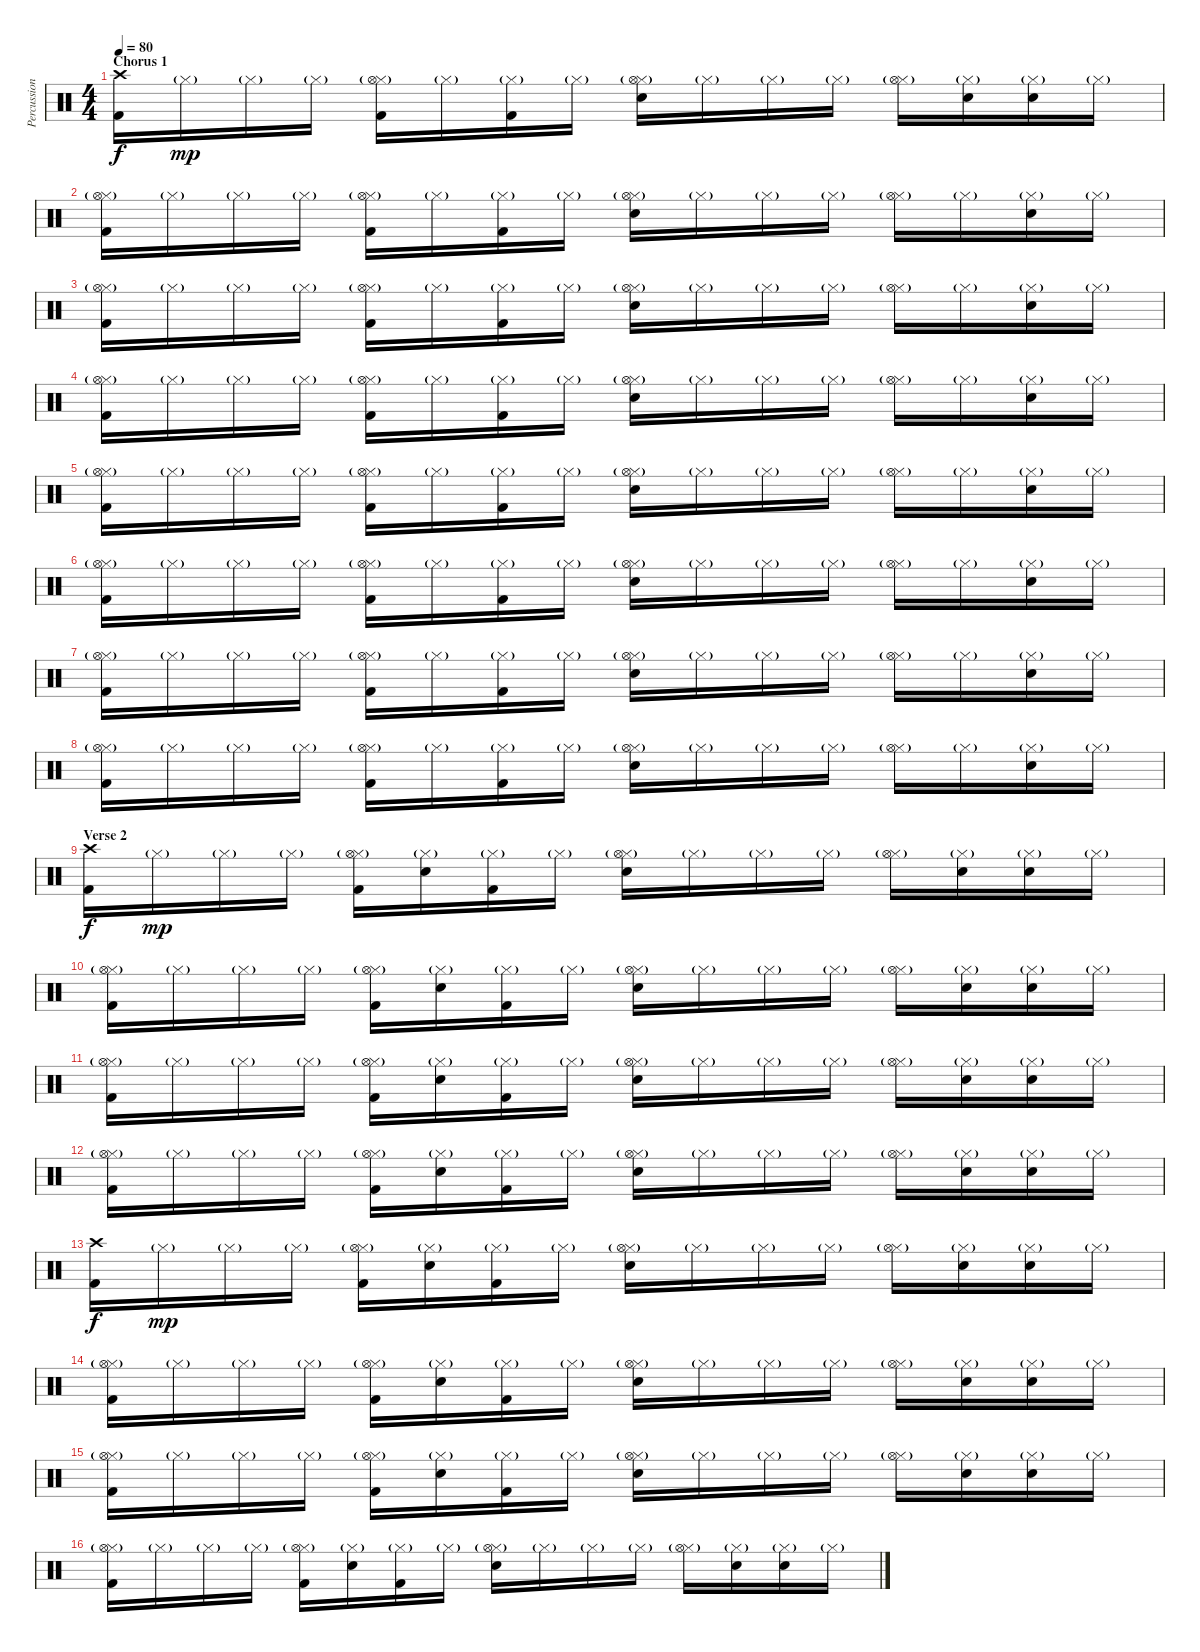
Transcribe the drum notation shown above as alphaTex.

\track ("Percussions" "Percussion") {instrument percussion}
\staff {score}
\articulation defaults
\ts (4 4)
\section ("" "Chorus 1")
\tempo 80
\clef neutral
\ks c
("Crash high (hit)" "Kick (hit) 2").16{dy f} "Hi-Hat (closed)"{g}.16{dy mp} "Hi-Hat (closed)"{g}.16 "Hi-Hat (closed)"{g}.16 ("Hi-Hat (closed)"{g} "Hi-Hat (open)" "Kick (hit) 2").16 "Hi-Hat (closed)"{g}.16 ("Hi-Hat (closed)"{g} "Kick (hit) 2").16 "Hi-Hat (closed)"{g}.16 ("Hi-Hat (closed)"{g} "Hi-Hat (open)" "Snare (hit) 2").16 "Hi-Hat (closed)"{g}.16 "Hi-Hat (closed)"{g}.16 "Hi-Hat (closed)"{g}.16 ("Hi-Hat (closed)"{g} "Hi-Hat (open)").16 ("Hi-Hat (closed)"{g} "Hand Clap (hit)").16 ("Hi-Hat (closed)"{g} "Snare (hit) 2").16 "Hi-Hat (closed)"{g}.16 |
("Hi-Hat (closed)"{g} "Hi-Hat (open)" "Kick (hit) 2").16 "Hi-Hat (closed)"{g}.16 "Hi-Hat (closed)"{g}.16 "Hi-Hat (closed)"{g}.16 ("Hi-Hat (closed)"{g} "Hi-Hat (open)" "Kick (hit) 2").16 "Hi-Hat (closed)"{g}.16 ("Hi-Hat (closed)"{g} "Kick (hit) 2").16 "Hi-Hat (closed)"{g}.16 ("Hi-Hat (closed)"{g} "Hi-Hat (open)" "Snare (hit) 2").16 "Hi-Hat (closed)"{g}.16 "Hi-Hat (closed)"{g}.16 "Hi-Hat (closed)"{g}.16 ("Hi-Hat (closed)"{g} "Hi-Hat (open)").16 "Hi-Hat (closed)"{g}.16 ("Hi-Hat (closed)"{g} "Snare (hit) 2").16 "Hi-Hat (closed)"{g}.16 |
("Hi-Hat (closed)"{g} "Hi-Hat (open)" "Kick (hit) 2").16 "Hi-Hat (closed)"{g}.16 "Hi-Hat (closed)"{g}.16 "Hi-Hat (closed)"{g}.16 ("Hi-Hat (closed)"{g} "Hi-Hat (open)" "Kick (hit) 2").16 "Hi-Hat (closed)"{g}.16 ("Hi-Hat (closed)"{g} "Kick (hit) 2").16 "Hi-Hat (closed)"{g}.16 ("Hi-Hat (closed)"{g} "Hi-Hat (open)" "Snare (hit) 2").16 "Hi-Hat (closed)"{g}.16 "Hi-Hat (closed)"{g}.16 "Hi-Hat (closed)"{g}.16 ("Hi-Hat (closed)"{g} "Hi-Hat (open)").16 "Hi-Hat (closed)"{g}.16 ("Hi-Hat (closed)"{g} "Snare (hit) 2").16 "Hi-Hat (closed)"{g}.16 |
("Hi-Hat (closed)"{g} "Hi-Hat (open)" "Kick (hit) 2").16 "Hi-Hat (closed)"{g}.16 "Hi-Hat (closed)"{g}.16 "Hi-Hat (closed)"{g}.16 ("Hi-Hat (closed)"{g} "Hi-Hat (open)" "Kick (hit) 2").16 "Hi-Hat (closed)"{g}.16 ("Hi-Hat (closed)"{g} "Kick (hit) 2").16 "Hi-Hat (closed)"{g}.16 ("Hi-Hat (closed)"{g} "Hi-Hat (open)" "Snare (hit) 2").16 "Hi-Hat (closed)"{g}.16 "Hi-Hat (closed)"{g}.16 "Hi-Hat (closed)"{g}.16 ("Hi-Hat (closed)"{g} "Hi-Hat (open)").16 "Hi-Hat (closed)"{g}.16 ("Hi-Hat (closed)"{g} "Snare (hit) 2").16 "Hi-Hat (closed)"{g}.16 |
("Hi-Hat (closed)"{g} "Hi-Hat (open)" "Kick (hit) 2").16 "Hi-Hat (closed)"{g}.16 "Hi-Hat (closed)"{g}.16 "Hi-Hat (closed)"{g}.16 ("Hi-Hat (closed)"{g} "Hi-Hat (open)" "Kick (hit) 2").16 "Hi-Hat (closed)"{g}.16 ("Hi-Hat (closed)"{g} "Kick (hit) 2").16 "Hi-Hat (closed)"{g}.16 ("Hi-Hat (closed)"{g} "Hi-Hat (open)" "Snare (hit) 2").16 "Hi-Hat (closed)"{g}.16 "Hi-Hat (closed)"{g}.16 "Hi-Hat (closed)"{g}.16 ("Hi-Hat (closed)"{g} "Hi-Hat (open)").16 "Hi-Hat (closed)"{g}.16 ("Hi-Hat (closed)"{g} "Snare (hit) 2").16 "Hi-Hat (closed)"{g}.16 |
("Hi-Hat (closed)"{g} "Hi-Hat (open)" "Kick (hit) 2").16 "Hi-Hat (closed)"{g}.16 "Hi-Hat (closed)"{g}.16 "Hi-Hat (closed)"{g}.16 ("Hi-Hat (closed)"{g} "Hi-Hat (open)" "Kick (hit) 2").16 "Hi-Hat (closed)"{g}.16 ("Hi-Hat (closed)"{g} "Kick (hit) 2").16 "Hi-Hat (closed)"{g}.16 ("Hi-Hat (closed)"{g} "Hi-Hat (open)" "Snare (hit) 2").16 "Hi-Hat (closed)"{g}.16 "Hi-Hat (closed)"{g}.16 "Hi-Hat (closed)"{g}.16 ("Hi-Hat (closed)"{g} "Hi-Hat (open)").16 "Hi-Hat (closed)"{g}.16 ("Hi-Hat (closed)"{g} "Snare (hit) 2").16 "Hi-Hat (closed)"{g}.16 |
("Hi-Hat (closed)"{g} "Hi-Hat (open)" "Kick (hit) 2").16 "Hi-Hat (closed)"{g}.16 "Hi-Hat (closed)"{g}.16 "Hi-Hat (closed)"{g}.16 ("Hi-Hat (closed)"{g} "Hi-Hat (open)" "Kick (hit) 2").16 "Hi-Hat (closed)"{g}.16 ("Hi-Hat (closed)"{g} "Kick (hit) 2").16 "Hi-Hat (closed)"{g}.16 ("Hi-Hat (closed)"{g} "Hi-Hat (open)" "Snare (hit) 2").16 "Hi-Hat (closed)"{g}.16 "Hi-Hat (closed)"{g}.16 "Hi-Hat (closed)"{g}.16 ("Hi-Hat (closed)"{g} "Hi-Hat (open)").16 "Hi-Hat (closed)"{g}.16 ("Hi-Hat (closed)"{g} "Snare (hit) 2").16 "Hi-Hat (closed)"{g}.16 |
("Hi-Hat (closed)"{g} "Hi-Hat (open)" "Kick (hit) 2").16 "Hi-Hat (closed)"{g}.16 "Hi-Hat (closed)"{g}.16 "Hi-Hat (closed)"{g}.16 ("Hi-Hat (closed)"{g} "Hi-Hat (open)" "Kick (hit) 2").16 "Hi-Hat (closed)"{g}.16 ("Hi-Hat (closed)"{g} "Kick (hit) 2").16 "Hi-Hat (closed)"{g}.16 ("Hi-Hat (closed)"{g} "Hi-Hat (open)" "Snare (hit) 2").16 "Hi-Hat (closed)"{g}.16 "Hi-Hat (closed)"{g}.16 "Hi-Hat (closed)"{g}.16 ("Hi-Hat (closed)"{g} "Hi-Hat (open)").16 "Hi-Hat (closed)"{g}.16 ("Hi-Hat (closed)"{g} "Snare (hit) 2").16 "Hi-Hat (closed)"{g}.16 |
\section ("" "Verse 2")
("Crash high (hit)" "Kick (hit) 2").16{dy f} "Hi-Hat (closed)"{g}.16{dy mp} "Hi-Hat (closed)"{g}.16 "Hi-Hat (closed)"{g}.16 ("Hi-Hat (closed)"{g} "Hi-Hat (open)" "Kick (hit) 2").16 ("Hi-Hat (closed)"{g} "Hand Clap (hit)").16 ("Hi-Hat (closed)"{g} "Kick (hit) 2").16 "Hi-Hat (closed)"{g}.16 ("Hi-Hat (closed)"{g} "Hi-Hat (open)" "Snare (hit) 2").16 "Hi-Hat (closed)"{g}.16 "Hi-Hat (closed)"{g}.16 "Hi-Hat (closed)"{g}.16 ("Hi-Hat (closed)"{g} "Hi-Hat (open)").16 ("Hi-Hat (closed)"{g} "Hand Clap (hit)").16 ("Hi-Hat (closed)"{g} "Snare (hit) 2").16 "Hi-Hat (closed)"{g}.16 |
("Hi-Hat (closed)"{g} "Hi-Hat (open)" "Kick (hit) 2").16 "Hi-Hat (closed)"{g}.16 "Hi-Hat (closed)"{g}.16 "Hi-Hat (closed)"{g}.16 ("Hi-Hat (closed)"{g} "Hi-Hat (open)" "Kick (hit) 2").16 ("Hi-Hat (closed)"{g} "Hand Clap (hit)").16 ("Hi-Hat (closed)"{g} "Kick (hit) 2").16 "Hi-Hat (closed)"{g}.16 ("Hi-Hat (closed)"{g} "Hi-Hat (open)" "Snare (hit) 2").16 "Hi-Hat (closed)"{g}.16 "Hi-Hat (closed)"{g}.16 "Hi-Hat (closed)"{g}.16 ("Hi-Hat (closed)"{g} "Hi-Hat (open)").16 ("Hi-Hat (closed)"{g} "Hand Clap (hit)").16 ("Hi-Hat (closed)"{g} "Snare (hit) 2").16 "Hi-Hat (closed)"{g}.16 |
("Hi-Hat (closed)"{g} "Hi-Hat (open)" "Kick (hit) 2").16 "Hi-Hat (closed)"{g}.16 "Hi-Hat (closed)"{g}.16 "Hi-Hat (closed)"{g}.16 ("Hi-Hat (closed)"{g} "Hi-Hat (open)" "Kick (hit) 2").16 ("Hi-Hat (closed)"{g} "Hand Clap (hit)").16 ("Hi-Hat (closed)"{g} "Kick (hit) 2").16 "Hi-Hat (closed)"{g}.16 ("Hi-Hat (closed)"{g} "Hi-Hat (open)" "Snare (hit) 2").16 "Hi-Hat (closed)"{g}.16 "Hi-Hat (closed)"{g}.16 "Hi-Hat (closed)"{g}.16 ("Hi-Hat (closed)"{g} "Hi-Hat (open)").16 ("Hi-Hat (closed)"{g} "Hand Clap (hit)").16 ("Hi-Hat (closed)"{g} "Snare (hit) 2").16 "Hi-Hat (closed)"{g}.16 |
("Hi-Hat (closed)"{g} "Hi-Hat (open)" "Kick (hit) 2").16 "Hi-Hat (closed)"{g}.16 "Hi-Hat (closed)"{g}.16 "Hi-Hat (closed)"{g}.16 ("Hi-Hat (closed)"{g} "Hi-Hat (open)" "Kick (hit) 2").16 ("Hi-Hat (closed)"{g} "Hand Clap (hit)").16 ("Hi-Hat (closed)"{g} "Kick (hit) 2").16 "Hi-Hat (closed)"{g}.16 ("Hi-Hat (closed)"{g} "Hi-Hat (open)" "Snare (hit) 2").16 "Hi-Hat (closed)"{g}.16 "Hi-Hat (closed)"{g}.16 "Hi-Hat (closed)"{g}.16 ("Hi-Hat (closed)"{g} "Hi-Hat (open)").16 ("Hi-Hat (closed)"{g} "Hand Clap (hit)").16 ("Hi-Hat (closed)"{g} "Snare (hit) 2").16 "Hi-Hat (closed)"{g}.16 |
("Crash high (hit)" "Kick (hit) 2").16{dy f} "Hi-Hat (closed)"{g}.16{dy mp} "Hi-Hat (closed)"{g}.16 "Hi-Hat (closed)"{g}.16 ("Hi-Hat (closed)"{g} "Hi-Hat (open)" "Kick (hit) 2").16 ("Hi-Hat (closed)"{g} "Hand Clap (hit)").16 ("Hi-Hat (closed)"{g} "Kick (hit) 2").16 "Hi-Hat (closed)"{g}.16 ("Hi-Hat (closed)"{g} "Hi-Hat (open)" "Snare (hit) 2").16 "Hi-Hat (closed)"{g}.16 "Hi-Hat (closed)"{g}.16 "Hi-Hat (closed)"{g}.16 ("Hi-Hat (closed)"{g} "Hi-Hat (open)").16 ("Hi-Hat (closed)"{g} "Hand Clap (hit)").16 ("Hi-Hat (closed)"{g} "Snare (hit) 2").16 "Hi-Hat (closed)"{g}.16 |
("Hi-Hat (closed)"{g} "Hi-Hat (open)" "Kick (hit) 2").16 "Hi-Hat (closed)"{g}.16 "Hi-Hat (closed)"{g}.16 "Hi-Hat (closed)"{g}.16 ("Hi-Hat (closed)"{g} "Hi-Hat (open)" "Kick (hit) 2").16 ("Hi-Hat (closed)"{g} "Hand Clap (hit)").16 ("Hi-Hat (closed)"{g} "Kick (hit) 2").16 "Hi-Hat (closed)"{g}.16 ("Hi-Hat (closed)"{g} "Hi-Hat (open)" "Snare (hit) 2").16 "Hi-Hat (closed)"{g}.16 "Hi-Hat (closed)"{g}.16 "Hi-Hat (closed)"{g}.16 ("Hi-Hat (closed)"{g} "Hi-Hat (open)").16 ("Hi-Hat (closed)"{g} "Hand Clap (hit)").16 ("Hi-Hat (closed)"{g} "Snare (hit) 2").16 "Hi-Hat (closed)"{g}.16 |
("Hi-Hat (closed)"{g} "Hi-Hat (open)" "Kick (hit) 2").16 "Hi-Hat (closed)"{g}.16 "Hi-Hat (closed)"{g}.16 "Hi-Hat (closed)"{g}.16 ("Hi-Hat (closed)"{g} "Hi-Hat (open)" "Kick (hit) 2").16 ("Hi-Hat (closed)"{g} "Hand Clap (hit)").16 ("Hi-Hat (closed)"{g} "Kick (hit) 2").16 "Hi-Hat (closed)"{g}.16 ("Hi-Hat (closed)"{g} "Hi-Hat (open)" "Snare (hit) 2").16 "Hi-Hat (closed)"{g}.16 "Hi-Hat (closed)"{g}.16 "Hi-Hat (closed)"{g}.16 ("Hi-Hat (closed)"{g} "Hi-Hat (open)").16 ("Hi-Hat (closed)"{g} "Hand Clap (hit)").16 ("Hi-Hat (closed)"{g} "Snare (hit) 2").16 "Hi-Hat (closed)"{g}.16 |
("Hi-Hat (closed)"{g} "Hi-Hat (open)" "Kick (hit) 2").16 "Hi-Hat (closed)"{g}.16 "Hi-Hat (closed)"{g}.16 "Hi-Hat (closed)"{g}.16 ("Hi-Hat (closed)"{g} "Hi-Hat (open)" "Kick (hit) 2").16 ("Hi-Hat (closed)"{g} "Hand Clap (hit)").16 ("Hi-Hat (closed)"{g} "Kick (hit) 2").16 "Hi-Hat (closed)"{g}.16 ("Hi-Hat (closed)"{g} "Hi-Hat (open)" "Snare (hit) 2").16 "Hi-Hat (closed)"{g}.16 "Hi-Hat (closed)"{g}.16 "Hi-Hat (closed)"{g}.16 ("Hi-Hat (closed)"{g} "Hi-Hat (open)").16 ("Hi-Hat (closed)"{g} "Hand Clap (hit)").16 ("Hi-Hat (closed)"{g} "Snare (hit) 2").16 "Hi-Hat (closed)"{g}.16
